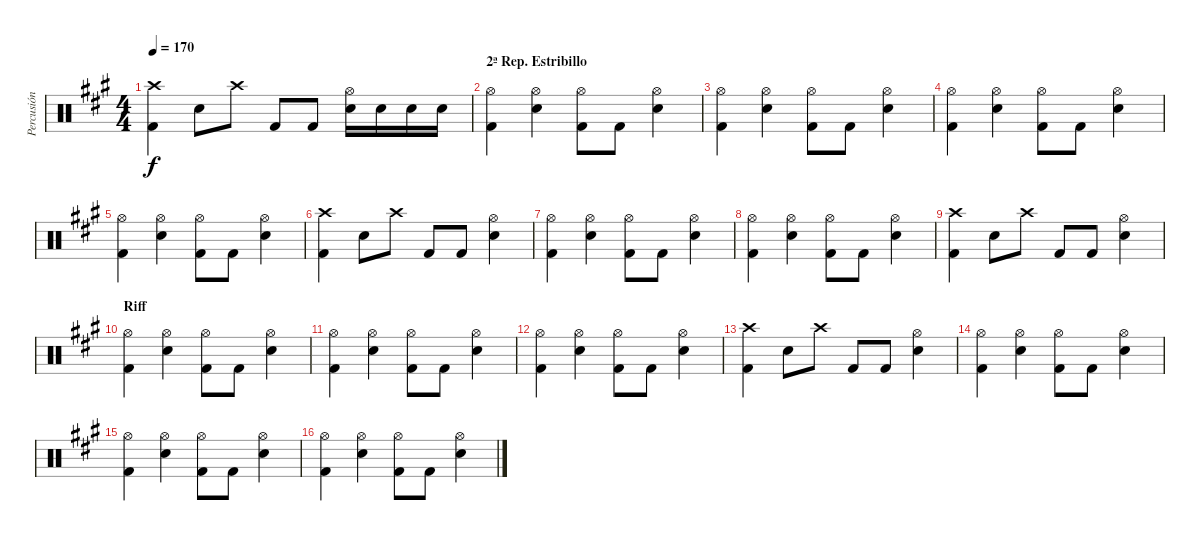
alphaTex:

\track ("Percusión" "Percusión") {instrument percussion}
\staff {score}
\articulation defaults
\ts (4 4)
\tempo 170
\clef neutral
\ks a
("Crash high (hit)" "Kick (hit) 2").4{dy f} "Snare (hit) 2".8 "Crash high (hit)".8 "Kick (hit) 2".8 "Kick (hit) 2".8 ("Hi-Hat (open)" "Snare (hit) 2").16 "Snare (hit) 2".16 "Snare (hit) 2".16 "Snare (hit) 2".16 |
\section ("" "2ª Rep. Estribillo")
("Hi-Hat (open)" "Kick (hit) 2").4 ("Hi-Hat (open)" "Snare (hit) 2").4 ("Hi-Hat (open)" "Kick (hit) 2").8 "Kick (hit) 2".8 ("Hi-Hat (open)" "Snare (hit) 2").4 |
("Hi-Hat (open)" "Kick (hit) 2").4 ("Hi-Hat (open)" "Snare (hit) 2").4 ("Hi-Hat (open)" "Kick (hit) 2").8 "Kick (hit) 2".8 ("Hi-Hat (open)" "Snare (hit) 2").4 |
("Hi-Hat (open)" "Kick (hit) 2").4 ("Hi-Hat (open)" "Snare (hit) 2").4 ("Hi-Hat (open)" "Kick (hit) 2").8 "Kick (hit) 2".8 ("Hi-Hat (open)" "Snare (hit) 2").4 |
("Hi-Hat (open)" "Kick (hit) 2").4 ("Hi-Hat (open)" "Snare (hit) 2").4 ("Hi-Hat (open)" "Kick (hit) 2").8 "Kick (hit) 2".8 ("Hi-Hat (open)" "Snare (hit) 2").4 |
("Crash high (hit)" "Kick (hit) 2").4 "Snare (hit) 2".8 "Crash high (hit)".8 "Kick (hit) 2".8 "Kick (hit) 2".8 ("Hi-Hat (open)" "Snare (hit) 2").4 |
("Hi-Hat (open)" "Kick (hit) 2").4 ("Hi-Hat (open)" "Snare (hit) 2").4 ("Hi-Hat (open)" "Kick (hit) 2").8 "Kick (hit) 2".8 ("Hi-Hat (open)" "Snare (hit) 2").4 |
("Hi-Hat (open)" "Kick (hit) 2").4 ("Hi-Hat (open)" "Snare (hit) 2").4 ("Hi-Hat (open)" "Kick (hit) 2").8 "Kick (hit) 2".8 ("Hi-Hat (open)" "Snare (hit) 2").4 |
("Crash high (hit)" "Kick (hit) 2").4 "Snare (hit) 2".8 "Crash high (hit)".8 "Kick (hit) 2".8 "Kick (hit) 2".8 ("Hi-Hat (open)" "Snare (hit) 2").4 |
\section ("" "Riff")
("Hi-Hat (open)" "Kick (hit) 2").4 ("Hi-Hat (open)" "Snare (hit) 2").4 ("Hi-Hat (open)" "Kick (hit) 2").8 "Kick (hit) 2".8 ("Hi-Hat (open)" "Snare (hit) 2").4 |
("Hi-Hat (open)" "Kick (hit) 2").4 ("Hi-Hat (open)" "Snare (hit) 2").4 ("Hi-Hat (open)" "Kick (hit) 2").8 "Kick (hit) 2".8 ("Hi-Hat (open)" "Snare (hit) 2").4 |
("Hi-Hat (open)" "Kick (hit) 2").4 ("Hi-Hat (open)" "Snare (hit) 2").4 ("Hi-Hat (open)" "Kick (hit) 2").8 "Kick (hit) 2".8 ("Hi-Hat (open)" "Snare (hit) 2").4 |
("Crash high (hit)" "Kick (hit) 2").4 "Snare (hit) 2".8 "Crash high (hit)".8 "Kick (hit) 2".8 "Kick (hit) 2".8 ("Hi-Hat (open)" "Snare (hit) 2").4 |
("Hi-Hat (open)" "Kick (hit) 2").4 ("Hi-Hat (open)" "Snare (hit) 2").4 ("Hi-Hat (open)" "Kick (hit) 2").8 "Kick (hit) 2".8 ("Hi-Hat (open)" "Snare (hit) 2").4 |
("Hi-Hat (open)" "Kick (hit) 2").4 ("Hi-Hat (open)" "Snare (hit) 2").4 ("Hi-Hat (open)" "Kick (hit) 2").8 "Kick (hit) 2".8 ("Hi-Hat (open)" "Snare (hit) 2").4 |
("Hi-Hat (open)" "Kick (hit) 2").4 ("Hi-Hat (open)" "Snare (hit) 2").4 ("Hi-Hat (open)" "Kick (hit) 2").8 "Kick (hit) 2".8 ("Hi-Hat (open)" "Snare (hit) 2").4
